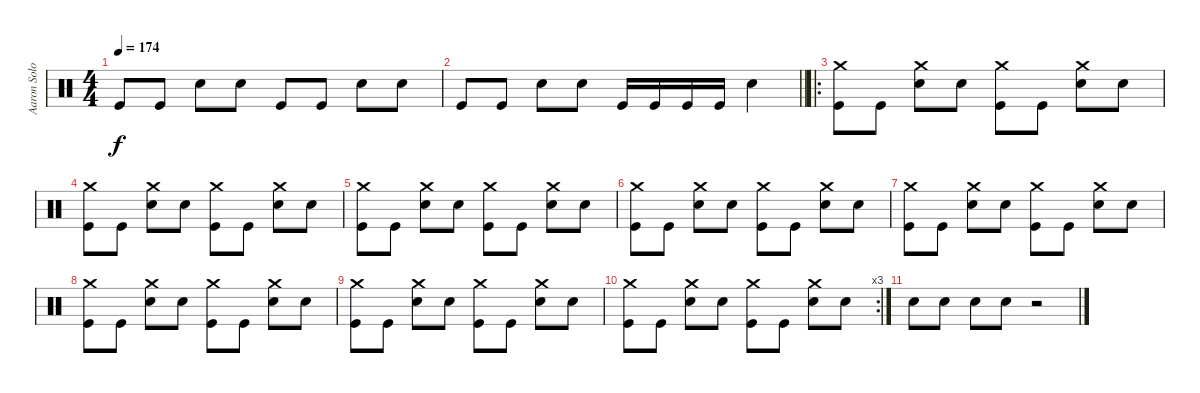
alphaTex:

\track ("Aaron Solowoniuk" "Aaron Solo") {instrument percussion}
\staff {score}
\articulation defaults
\ts (4 4)
\tempo 174
\clef neutral
\ks c "Kick (hit)".8{dy f} "Kick (hit)".8 "Snare (hit) 2".8 "Snare (hit) 2".8 "Kick (hit)".8 "Kick (hit)".8 "Snare (hit) 2".8 "Snare (hit) 2".8
|
\barLineRight lightlight "Kick (hit)".8 "Kick (hit)".8 "Snare (hit) 2".8 "Snare (hit) 2".8 "Kick (hit)".16 "Kick (hit)".16 "Kick (hit)".16 "Kick (hit)".16 "Snare (hit) 2".4
|
\ro
("Kick (hit)" "Crash medium (hit)").8 "Kick (hit)".8 ("Snare (hit) 2" "Crash medium (hit)").8 "Snare (hit) 2".8 ("Kick (hit)" "Crash medium (hit)").8 "Kick (hit)".8 ("Snare (hit) 2" "Crash medium (hit)").8 "Snare (hit) 2".8 |
("Kick (hit)" "Crash medium (hit)").8 "Kick (hit)".8 ("Snare (hit) 2" "Crash medium (hit)").8 "Snare (hit) 2".8 ("Kick (hit)" "Crash medium (hit)").8 "Kick (hit)".8 ("Snare (hit) 2" "Crash medium (hit)").8 "Snare (hit) 2".8 |
("Kick (hit)" "Crash medium (hit)").8 "Kick (hit)".8 ("Snare (hit) 2" "Crash medium (hit)").8 "Snare (hit) 2".8 ("Kick (hit)" "Crash medium (hit)").8 "Kick (hit)".8 ("Snare (hit) 2" "Crash medium (hit)").8 "Snare (hit) 2".8 |
("Kick (hit)" "Crash medium (hit)").8 "Kick (hit)".8 ("Snare (hit) 2" "Crash medium (hit)").8 "Snare (hit) 2".8 ("Kick (hit)" "Crash medium (hit)").8 "Kick (hit)".8 ("Snare (hit) 2" "Crash medium (hit)").8 "Snare (hit) 2".8 |
("Kick (hit)" "Crash medium (hit)").8 "Kick (hit)".8 ("Snare (hit) 2" "Crash medium (hit)").8 "Snare (hit) 2".8 ("Kick (hit)" "Crash medium (hit)").8 "Kick (hit)".8 ("Snare (hit) 2" "Crash medium (hit)").8 "Snare (hit) 2".8 |
("Kick (hit)" "Crash medium (hit)").8 "Kick (hit)".8 ("Snare (hit) 2" "Crash medium (hit)").8 "Snare (hit) 2".8 ("Kick (hit)" "Crash medium (hit)").8 "Kick (hit)".8 ("Snare (hit) 2" "Crash medium (hit)").8 "Snare (hit) 2".8 |
("Kick (hit)" "Crash medium (hit)").8 "Kick (hit)".8 ("Snare (hit) 2" "Crash medium (hit)").8 "Snare (hit) 2".8 ("Kick (hit)" "Crash medium (hit)").8 "Kick (hit)".8 ("Snare (hit) 2" "Crash medium (hit)").8 "Snare (hit) 2".8 |
\rc 3
("Kick (hit)" "Crash medium (hit)").8 "Kick (hit)".8 ("Snare (hit) 2" "Crash medium (hit)").8 "Snare (hit) 2".8 ("Kick (hit)" "Crash medium (hit)").8 "Kick (hit)".8 ("Snare (hit) 2" "Crash medium (hit)").8 "Snare (hit) 2".8 |
"Electric Snare (hit)".8 "Electric Snare (hit)".8 "Electric Snare (hit)".8 "Electric Snare (hit)".8 r.2
